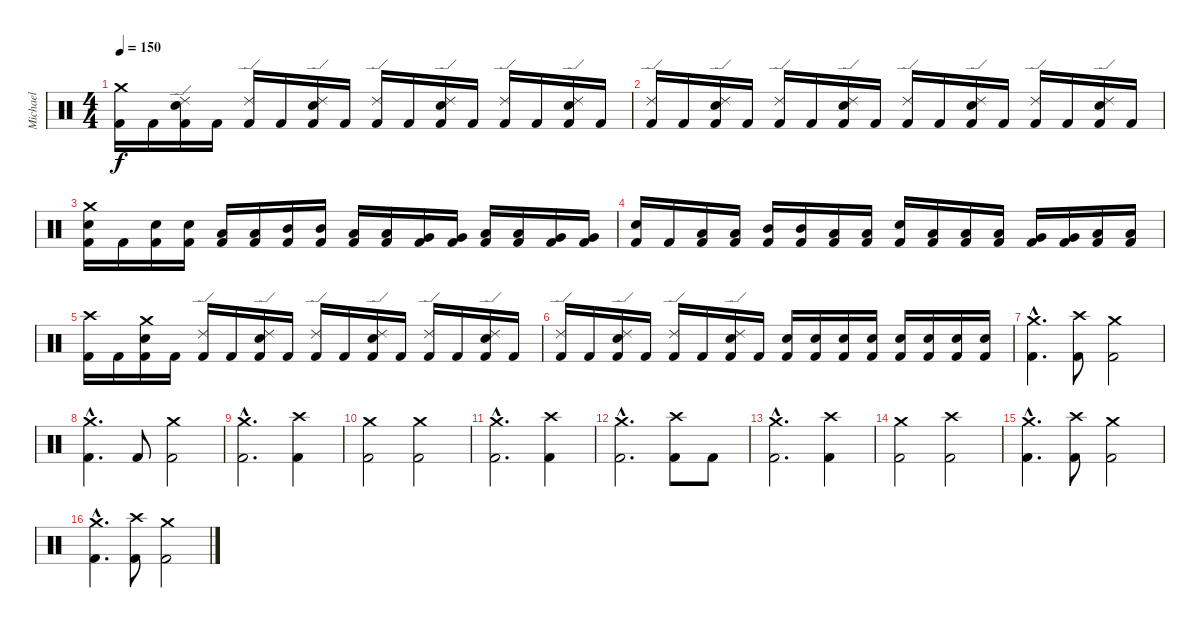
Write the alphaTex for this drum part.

\track ("Michael" "Michael") {instrument percussion}
\staff {score}
\articulation defaults
\ts (4 4)
\tempo 150
\clef neutral
\ks c
("Crash medium (hit)" "Kick (hit) 2").16{dy f} "Kick (hit) 2".16 ("Ride (edge) 2" "Electric Snare (hit)" "Kick (hit) 2").16 "Kick (hit) 2".16 ("Ride (edge) 2" "Kick (hit) 2").16 "Kick (hit) 2".16 ("Ride (edge) 2" "Electric Snare (hit)" "Kick (hit) 2").16 "Kick (hit) 2".16 ("Ride (edge) 2" "Kick (hit) 2").16 "Kick (hit) 2".16 ("Ride (edge) 2" "Electric Snare (hit)" "Kick (hit) 2").16 "Kick (hit) 2".16 ("Ride (edge) 2" "Kick (hit) 2").16 "Kick (hit) 2".16 ("Ride (edge) 2" "Electric Snare (hit)" "Kick (hit) 2").16 "Kick (hit) 2".16 |
("Ride (edge) 2" "Kick (hit) 2").16 "Kick (hit) 2".16 ("Ride (edge) 2" "Electric Snare (hit)" "Kick (hit) 2").16 "Kick (hit) 2".16 ("Ride (edge) 2" "Kick (hit) 2").16 "Kick (hit) 2".16 ("Ride (edge) 2" "Electric Snare (hit)" "Kick (hit) 2").16 "Kick (hit) 2".16 ("Ride (edge) 2" "Kick (hit) 2").16 "Kick (hit) 2".16 ("Ride (edge) 2" "Electric Snare (hit)" "Kick (hit) 2").16 "Kick (hit) 2".16 ("Ride (edge) 2" "Kick (hit) 2").16 "Kick (hit) 2".16 ("Ride (edge) 2" "Electric Snare (hit)" "Kick (hit) 2").16 "Kick (hit) 2".16 |
("Crash medium (hit)" "Electric Snare (hit)" "Kick (hit) 2").16 "Kick (hit) 2".16 ("Electric Snare (hit)" "Kick (hit) 2").16 ("Electric Snare (hit)" "Kick (hit) 2").16 ("Low Tom (hit)" "Kick (hit) 2").16 ("Low Tom (hit)" "Kick (hit) 2").16 ("Mid Tom (hit)" "Kick (hit) 2").16 ("Mid Tom (hit)" "Kick (hit) 2").16 ("Low Tom (hit)" "Kick (hit) 2").16 ("Low Tom (hit)" "Kick (hit) 2").16 ("Very Low Tom (hit)" "Kick (hit) 2").16 ("Very Low Tom (hit)" "Kick (hit) 2").16 ("Low Tom (hit)" "Kick (hit) 2").16 ("Low Tom (hit)" "Kick (hit) 2").16 ("Very Low Tom (hit)" "Kick (hit) 2").16 ("Very Low Tom (hit)" "Kick (hit) 2").16 |
("Electric Snare (hit)" "Kick (hit) 2").16 "Kick (hit) 2".16 ("Low Tom (hit)" "Kick (hit) 2").16 ("Low Tom (hit)" "Kick (hit) 2").16 ("Mid Tom (hit)" "Kick (hit) 2").16 ("Mid Tom (hit)" "Kick (hit) 2").16 ("Low Tom (hit)" "Kick (hit) 2").16 ("Low Tom (hit)" "Kick (hit) 2").16 ("Electric Snare (hit)" "Kick (hit) 2").16 ("Low Tom (hit)" "Kick (hit) 2").16 ("Low Tom (hit)" "Kick (hit) 2").16 ("Low Tom (hit)" "Kick (hit) 2").16 ("Very Low Tom (hit)" "Kick (hit) 2").16 ("Very Low Tom (hit)" "Kick (hit) 2").16 ("Low Floor Tom (hit)" "Kick (hit) 2").16 ("Low Floor Tom (hit)" "Kick (hit) 2").16 |
("Crash high (hit)" "Kick (hit) 2").16 "Kick (hit) 2".16 ("Crash medium (hit)" "Electric Snare (hit)" "Kick (hit) 2").16 "Kick (hit) 2".16 ("Ride (edge) 2" "Kick (hit) 2").16 "Kick (hit) 2".16 ("Ride (edge) 2" "Electric Snare (hit)" "Kick (hit) 2").16 "Kick (hit) 2".16 ("Ride (edge) 2" "Kick (hit) 2").16 "Kick (hit) 2".16 ("Ride (edge) 2" "Electric Snare (hit)" "Kick (hit) 2").16 "Kick (hit) 2".16 ("Ride (edge) 2" "Kick (hit) 2").16 "Kick (hit) 2".16 ("Ride (edge) 2" "Electric Snare (hit)" "Kick (hit) 2").16 "Kick (hit) 2".16 |
("Ride (edge) 2" "Kick (hit) 2").16 "Kick (hit) 2".16 ("Ride (edge) 2" "Electric Snare (hit)" "Kick (hit) 2").16 "Kick (hit) 2".16 ("Ride (edge) 2" "Kick (hit) 2").16 "Kick (hit) 2".16 ("Ride (edge) 2" "Electric Snare (hit)" "Kick (hit) 2").16 "Kick (hit) 2".16 ("Electric Snare (hit)" "Kick (hit) 2").16 ("Electric Snare (hit)" "Kick (hit) 2").16 ("Electric Snare (hit)" "Kick (hit) 2").16 ("Electric Snare (hit)" "Kick (hit) 2").16 ("Electric Snare (hit)" "Kick (hit) 2").16 ("Electric Snare (hit)" "Kick (hit) 2").16 ("Electric Snare (hit)" "Kick (hit) 2").16 ("Electric Snare (hit)" "Kick (hit) 2").16 |
("Crash medium (hit)"{hac} "Kick (hit) 2"{hac}).4{d} ("Crash high (hit)" "Kick (hit) 2").8 ("Crash medium (hit)" "Kick (hit) 2").2 |
("Crash medium (hit)"{hac} "Kick (hit) 2"{hac}).4{d} "Kick (hit) 2".8 ("Crash medium (hit)" "Kick (hit) 2").2 |
("Crash medium (hit)"{hac} "Kick (hit) 2"{hac}).2{d} ("Crash high (hit)" "Kick (hit) 2").4 |
("Crash medium (hit)" "Kick (hit) 2").2 ("Crash medium (hit)" "Kick (hit) 2").2 |
("Crash medium (hit)"{hac} "Kick (hit) 2"{hac}).2{d} ("Crash high (hit)" "Kick (hit) 2").4 |
("Crash medium (hit)"{hac} "Kick (hit) 2"{hac}).2{d} ("Crash high (hit)" "Kick (hit) 2").8 "Kick (hit) 2".8 |
("Crash medium (hit)"{hac} "Kick (hit) 2"{hac}).2{d} ("Crash high (hit)" "Kick (hit) 2").4 |
("Crash medium (hit)" "Kick (hit) 2").2 ("Crash high (hit)" "Kick (hit) 2").2 |
("Crash medium (hit)"{hac} "Kick (hit) 2"{hac}).4{d} ("Crash high (hit)" "Kick (hit) 2").8 ("Crash medium (hit)" "Kick (hit) 2").2 |
("Crash medium (hit)"{hac} "Kick (hit) 2"{hac}).4{d} ("Crash high (hit)" "Kick (hit) 2").8 ("Crash medium (hit)" "Kick (hit) 2").2
